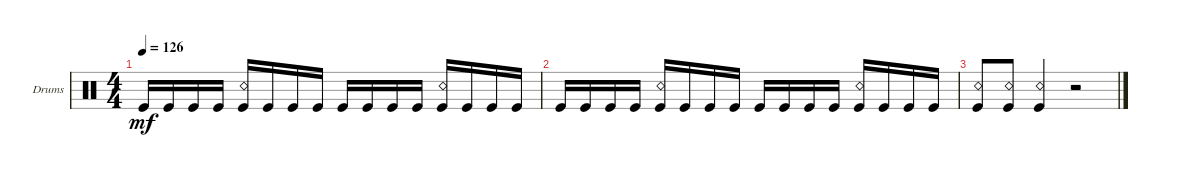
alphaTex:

\defaultSystemsLayout 4
\bracketExtendMode groupsimilarinstruments
\firstSystemTrackNameOrientation horizontal
\otherSystemsTrackNameOrientation horizontal
\track ("Drumkit" "Drums") {instrument percussion}
\staff {score}
\articulation defaults
\ts (4 4)
\tempo 126
\clef neutral
\ks c "Kick (hit)".16{dy mf} "Kick (hit)".16 "Kick (hit)".16 "Kick (hit)".16
("Kick (hit)" "Snare (rim shot)").16 "Kick (hit)".16 "Kick (hit)".16 "Kick (hit)".16 "Kick (hit)".16 "Kick (hit)".16 "Kick (hit)".16 "Kick (hit)".16 ("Kick (hit)" "Snare (rim shot)").16 "Kick (hit)".16 "Kick (hit)".16 "Kick (hit)".16 |
"Kick (hit)".16 "Kick (hit)".16 "Kick (hit)".16 "Kick (hit)".16 ("Kick (hit)" "Snare (rim shot)").16 "Kick (hit)".16 "Kick (hit)".16 "Kick (hit)".16 "Kick (hit)".16 "Kick (hit)".16 "Kick (hit)".16 "Kick (hit)".16 ("Kick (hit)" "Snare (rim shot)").16 "Kick (hit)".16 "Kick (hit)".16 "Kick (hit)".16 |
("Kick (hit)" "Snare (rim shot)").8 ("Kick (hit)" "Snare (rim shot)").8 ("Kick (hit)" "Snare (rim shot)").4 r.2
